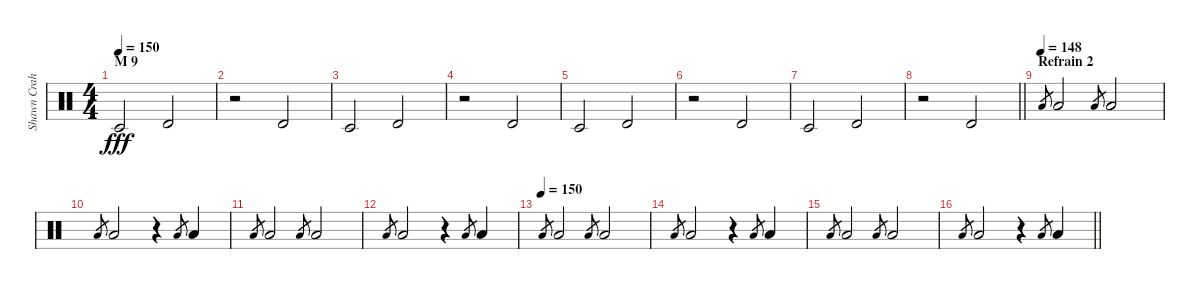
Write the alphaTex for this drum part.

\track ("Shawn Crahan" "Shawn Crah") {instrument percussion}
\staff {score}
\articulation defaults
\ts (4 4)
\section ("" "M 9")
\tempo 150
\clef neutral
\ks c "Timbale low (hit)".2{dy fff} "Timbale high (hit)".2
|
r.2 "Timbale high (hit)".2 |
"Timbale low (hit)".2 "Timbale high (hit)".2 |
r.2 "Timbale high (hit)".2 |
"Timbale low (hit)".2 "Timbale high (hit)".2 |
r.2 "Timbale high (hit)".2 |
"Timbale low (hit)".2 "Timbale high (hit)".2 |
\barLineRight lightlight
r.2 "Timbale high (hit)".2 |
\section ("" "Refrain 2")
\tempo (148)
"Low Floor Tom (hit)".8{gr} "Low Floor Tom (hit)".2 "Low Floor Tom (hit)".8{gr} "Low Floor Tom (hit)".2 |
"Low Floor Tom (hit)".8{gr} "Low Floor Tom (hit)".2 r.4 "Low Floor Tom (hit)".8{gr} "Low Floor Tom (hit)".4 |
"Low Floor Tom (hit)".8{gr} "Low Floor Tom (hit)".2 "Low Floor Tom (hit)".8{gr} "Low Floor Tom (hit)".2 |
"Low Floor Tom (hit)".8{gr} "Low Floor Tom (hit)".2 r.4 "Low Floor Tom (hit)".8{gr} "Low Floor Tom (hit)".4 |
\tempo (150)
"Low Floor Tom (hit)".8{gr} "Low Floor Tom (hit)".2 "Low Floor Tom (hit)".8{gr} "Low Floor Tom (hit)".2 |
"Low Floor Tom (hit)".8{gr} "Low Floor Tom (hit)".2 r.4 "Low Floor Tom (hit)".8{gr} "Low Floor Tom (hit)".4 |
"Low Floor Tom (hit)".8{gr} "Low Floor Tom (hit)".2 "Low Floor Tom (hit)".8{gr} "Low Floor Tom (hit)".2 |
\barLineRight lightlight "Low Floor Tom (hit)".8{gr} "Low Floor Tom (hit)".2
r.4 "Low Floor Tom (hit)".8{gr} "Low Floor Tom (hit)".4
